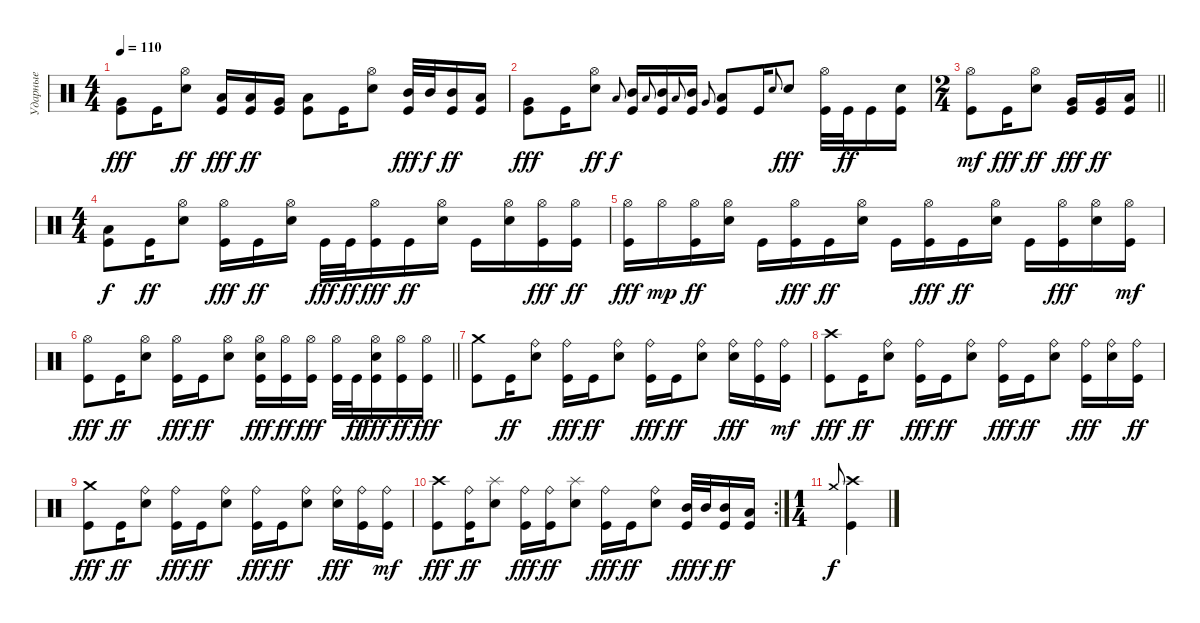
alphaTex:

\track ("Ударные" "Ударные") {instrument percussion}
\staff {score}
\articulation defaults
\ts (4 4)
\tempo 110
\clef neutral
\ks c
("Very Low Tom (hit)" "Kick (hit)").8{dy fff} "Kick (hit)".16 ("Hi-Hat (open)" "Electric Snare (hit)").8{dy ff} ("Low Tom (hit)" "Kick (hit)").16{dy fff} ("Low Tom (hit)" "Kick (hit)").16{dy ff} ("Very Low Tom (hit)" "Kick (hit)").16 ("Low Floor Tom (hit)" "Kick (hit)").8 "Kick (hit)".16 ("Hi-Hat (open)" "Electric Snare (hit)").8 ("Mid Tom (hit)" "Kick (hit)").32{dy fff} "Mid Tom (hit)".32{dy f} ("Mid Tom (hit)" "Kick (hit)").16{dy ff} ("Low Tom (hit)" "Kick (hit)").16 |
("Very Low Tom (hit)" "Kick (hit)").8{dy fff} "Kick (hit)".16 ("Hi-Hat (open)" "Electric Snare (hit)").8{dy ff} "Low Tom (hit)".8{gr onbeat dy f} ("Mid Tom (hit)" "Kick (hit)").16 "Low Tom (hit)".8{gr onbeat} ("Mid Tom (hit)" "Kick (hit)").16 "Low Tom (hit)".8{gr onbeat} ("Mid Tom (hit)" "Kick (hit)").16 "Very Low Tom (hit)".8{gr onbeat} ("Low Tom (hit)" "Kick (hit)").8 "Kick (hit)".16 "Electric Snare (hit)".8{gr onbeat} "Electric Snare (hit)".8{dy fff} ("Hi-Hat (open)" "Kick (hit)").32 "Kick (hit)".32{dy ff} "Kick (hit)".16 ("Electric Snare (hit)" "Kick (hit)").16 |
\ts (2 4)
\barLineRight lightlight
("Hi-Hat (open)" "Kick (hit)").8{dy mf} "Kick (hit)".16{dy fff} ("Hi-Hat (open)" "Electric Snare (hit)").8{dy ff} ("Very Low Tom (hit)" "Kick (hit)").16{dy fff} ("Very Low Tom (hit)" "Kick (hit)").16{dy ff} ("Low Floor Tom (hit)" "Kick (hit)").16 |
\ts (4 4)
("Low Floor Tom (hit)" "Kick (hit)").8{dy f} "Kick (hit)".16{dy ff} ("Hi-Hat (open)" "Electric Snare (hit)").8 ("Hi-Hat (open)" "Kick (hit)").16{dy fff} "Kick (hit)".16{dy ff} ("Hi-Hat (open)" "Electric Snare (hit)").16 "Kick (hit)".32{dy fff} "Kick (hit)".32{dy ff} ("Hi-Hat (open)" "Kick (hit)").16{dy fff} "Kick (hit)".16{dy ff} ("Hi-Hat (open)" "Electric Snare (hit)").16 "Kick (hit)".16 ("Hi-Hat (open)" "Electric Snare (hit)").16 ("Hi-Hat (open)" "Kick (hit)").16{dy fff} ("Hi-Hat (open)" "Kick (hit)").16{dy ff} |
("Hi-Hat (open)" "Kick (hit)").16{dy fff} "Hi-Hat (open)".16{dy mp} ("Hi-Hat (open)" "Kick (hit)").16{dy ff} ("Hi-Hat (open)" "Electric Snare (hit)").16 "Kick (hit)".16 ("Hi-Hat (open)" "Kick (hit)").16{dy fff} "Kick (hit)".16{dy ff} ("Hi-Hat (open)" "Electric Snare (hit)").16 "Kick (hit)".16 ("Hi-Hat (open)" "Kick (hit)").16{dy fff} "Kick (hit)".16{dy ff} ("Hi-Hat (open)" "Electric Snare (hit)").16 "Kick (hit)".16 ("Hi-Hat (open)" "Kick (hit)").16{dy fff} ("Hi-Hat (open)" "Electric Snare (hit)").16 ("Hi-Hat (open)" "Kick (hit)").16{dy mf} |
\barLineRight lightlight
("Hi-Hat (open)" "Kick (hit)").8{dy fff} "Kick (hit)".16{dy ff} ("Hi-Hat (open)" "Electric Snare (hit)").8 ("Hi-Hat (open)" "Kick (hit)").16{dy fff} "Kick (hit)".16{dy ff} ("Hi-Hat (open)" "Electric Snare (hit)").8 ("Hi-Hat (open)" "Electric Snare (hit)" "Kick (hit)").16{dy fff} ("Hi-Hat (open)" "Kick (hit)").16{dy ff} ("Hi-Hat (open)" "Kick (hit)").16{dy fff} ("Hi-Hat (open)" "Kick (hit)").32 "Kick (hit)".32{dy ff} ("Hi-Hat (open)" "Electric Snare (hit)" "Kick (hit)").16{dy fff} ("Hi-Hat (open)" "Kick (hit)").16{dy ff} ("Hi-Hat (open)" "Kick (hit)").16{dy fff} |
\section ("" "")
("Crash medium (hit)" "Kick (hit)").8 "Kick (hit)".16{dy ff} ("Ride (bell)" "Electric Snare (hit)").8 ("Ride (bell)" "Kick (hit)").16{dy fff} "Kick (hit)".16{dy ff} ("Ride (bell)" "Electric Snare (hit)").8 ("Ride (bell)" "Kick (hit)").16{dy fff} "Kick (hit)".16{dy ff} ("Ride (bell)" "Electric Snare (hit)").8 ("Ride (bell)" "Electric Snare (hit)").16{dy fff} ("Ride (bell)" "Kick (hit)").16 ("Ride (bell)" "Kick (hit)").16{dy mf} |
("Crash high (hit)" "Kick (hit)").8{dy fff} "Kick (hit)".16{dy ff} ("Ride (bell)" "Electric Snare (hit)").8 ("Ride (bell)" "Kick (hit)").16{dy fff} "Kick (hit)".16{dy ff} ("Ride (bell)" "Electric Snare (hit)").8 ("Ride (bell)" "Kick (hit)").16{dy fff} "Kick (hit)".16{dy ff} ("Ride (bell)" "Electric Snare (hit)").8 ("Ride (bell)" "Kick (hit)").16{dy fff} ("Ride (bell)" "Electric Snare (hit)").16 ("Ride (bell)" "Kick (hit)").16{dy ff} |
("Crash medium (hit)" "Kick (hit)").8{dy fff} "Kick (hit)".16{dy ff} ("Ride (bell)" "Electric Snare (hit)").8 ("Ride (bell)" "Kick (hit)").16{dy fff} "Kick (hit)".16{dy ff} ("Ride (bell)" "Electric Snare (hit)").8 ("Ride (bell)" "Kick (hit)").16{dy fff} "Kick (hit)".16{dy ff} ("Ride (bell)" "Electric Snare (hit)").8 ("Ride (bell)" "Electric Snare (hit)").16{dy fff} ("Ride (bell)" "Kick (hit)").16 ("Ride (bell)" "Kick (hit)").16{dy mf} |
\rc 2
("Crash high (hit)" "Kick (hit)").8{dy fff} ("Ride (bell)" "Kick (hit)").16{dy ff} ("Splash (hit)" "Electric Snare (hit)").8 ("Ride (bell)" "Kick (hit)").16{dy fff} ("Ride (bell)" "Kick (hit)").16{dy ff} ("Splash (hit)" "Electric Snare (hit)").8 ("Ride (bell)" "Kick (hit)").16{dy fff} "Kick (hit)".16{dy ff} ("Ride (bell)" "Electric Snare (hit)").8 ("Mid Tom (hit)" "Kick (hit)").32{dy fff} "Mid Tom (hit)".32{dy f} ("Mid Tom (hit)" "Kick (hit)").16{dy ff} ("Low Tom (hit)" "Kick (hit)").16 |
\ts (1 4)
"Crash medium (hit)".8{gr onbeat dy f} ("Crash high (hit)" "Kick (hit)").4
